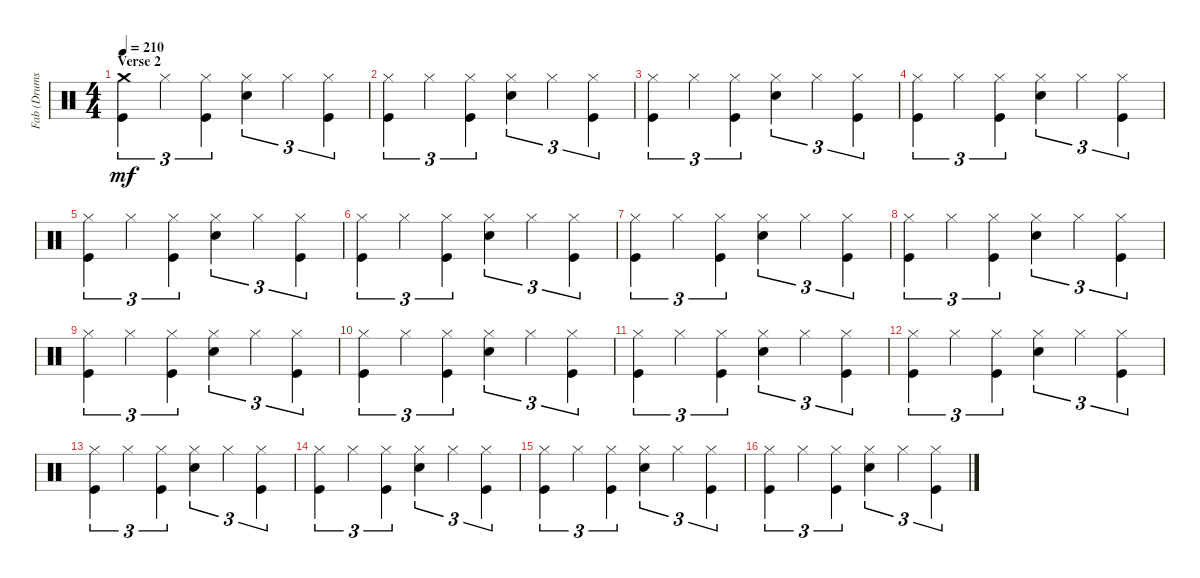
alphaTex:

\track ("Fab (Drums)" "Fab (Drums") {instrument percussion}
\staff {score}
\articulation defaults
\ts (4 4)
\section ("" "Verse 2")
\tempo 210
\clef neutral
\ks c
("Kick (hit)" "Crash medium (hit)").4{tu (3 2) dy mf} "Hi-Hat (closed)".4{tu (3 2)} ("Hi-Hat (closed)" "Kick (hit)").4{tu (3 2)} ("Hi-Hat (closed)" "Snare (hit) 2").4{tu (3 2)} "Hi-Hat (closed)".4{tu (3 2)} ("Hi-Hat (closed)" "Kick (hit)").4{tu (3 2)} |
("Kick (hit)" "Hi-Hat (closed)").4{tu (3 2)} "Hi-Hat (closed)".4{tu (3 2)} ("Hi-Hat (closed)" "Kick (hit)").4{tu (3 2)} ("Hi-Hat (closed)" "Snare (hit) 2").4{tu (3 2)} "Hi-Hat (closed)".4{tu (3 2)} ("Hi-Hat (closed)" "Kick (hit)").4{tu (3 2)} |
("Kick (hit)" "Hi-Hat (closed)").4{tu (3 2)} "Hi-Hat (closed)".4{tu (3 2)} ("Hi-Hat (closed)" "Kick (hit)").4{tu (3 2)} ("Hi-Hat (closed)" "Snare (hit) 2").4{tu (3 2)} "Hi-Hat (closed)".4{tu (3 2)} ("Hi-Hat (closed)" "Kick (hit)").4{tu (3 2)} |
("Kick (hit)" "Hi-Hat (closed)").4{tu (3 2)} "Hi-Hat (closed)".4{tu (3 2)} ("Hi-Hat (closed)" "Kick (hit)").4{tu (3 2)} ("Hi-Hat (closed)" "Snare (hit) 2").4{tu (3 2)} "Hi-Hat (closed)".4{tu (3 2)} ("Hi-Hat (closed)" "Kick (hit)").4{tu (3 2)} |
("Kick (hit)" "Hi-Hat (closed)").4{tu (3 2)} "Hi-Hat (closed)".4{tu (3 2)} ("Hi-Hat (closed)" "Kick (hit)").4{tu (3 2)} ("Hi-Hat (closed)" "Snare (hit) 2").4{tu (3 2)} "Hi-Hat (closed)".4{tu (3 2)} ("Hi-Hat (closed)" "Kick (hit)").4{tu (3 2)} |
("Kick (hit)" "Hi-Hat (closed)").4{tu (3 2)} "Hi-Hat (closed)".4{tu (3 2)} ("Hi-Hat (closed)" "Kick (hit)").4{tu (3 2)} ("Hi-Hat (closed)" "Snare (hit) 2").4{tu (3 2)} "Hi-Hat (closed)".4{tu (3 2)} ("Hi-Hat (closed)" "Kick (hit)").4{tu (3 2)} |
("Kick (hit)" "Hi-Hat (closed)").4{tu (3 2)} "Hi-Hat (closed)".4{tu (3 2)} ("Hi-Hat (closed)" "Kick (hit)").4{tu (3 2)} ("Hi-Hat (closed)" "Snare (hit) 2").4{tu (3 2)} "Hi-Hat (closed)".4{tu (3 2)} ("Hi-Hat (closed)" "Kick (hit)").4{tu (3 2)} |
("Kick (hit)" "Hi-Hat (closed)").4{tu (3 2)} "Hi-Hat (closed)".4{tu (3 2)} ("Hi-Hat (closed)" "Kick (hit)").4{tu (3 2)} ("Hi-Hat (closed)" "Snare (hit) 2").4{tu (3 2)} "Hi-Hat (closed)".4{tu (3 2)} ("Hi-Hat (closed)" "Kick (hit)").4{tu (3 2)} |
("Kick (hit)" "Hi-Hat (closed)").4{tu (3 2)} "Hi-Hat (closed)".4{tu (3 2)} ("Hi-Hat (closed)" "Kick (hit)").4{tu (3 2)} ("Hi-Hat (closed)" "Snare (hit) 2").4{tu (3 2)} "Hi-Hat (closed)".4{tu (3 2)} ("Hi-Hat (closed)" "Kick (hit)").4{tu (3 2)} |
("Kick (hit)" "Hi-Hat (closed)").4{tu (3 2)} "Hi-Hat (closed)".4{tu (3 2)} ("Hi-Hat (closed)" "Kick (hit)").4{tu (3 2)} ("Hi-Hat (closed)" "Snare (hit) 2").4{tu (3 2)} "Hi-Hat (closed)".4{tu (3 2)} ("Hi-Hat (closed)" "Kick (hit)").4{tu (3 2)} |
("Kick (hit)" "Hi-Hat (closed)").4{tu (3 2)} "Hi-Hat (closed)".4{tu (3 2)} ("Hi-Hat (closed)" "Kick (hit)").4{tu (3 2)} ("Hi-Hat (closed)" "Snare (hit) 2").4{tu (3 2)} "Hi-Hat (closed)".4{tu (3 2)} ("Hi-Hat (closed)" "Kick (hit)").4{tu (3 2)} |
("Kick (hit)" "Hi-Hat (closed)").4{tu (3 2)} "Hi-Hat (closed)".4{tu (3 2)} ("Hi-Hat (closed)" "Kick (hit)").4{tu (3 2)} ("Hi-Hat (closed)" "Snare (hit) 2").4{tu (3 2)} "Hi-Hat (closed)".4{tu (3 2)} ("Hi-Hat (closed)" "Kick (hit)").4{tu (3 2)} |
("Kick (hit)" "Hi-Hat (closed)").4{tu (3 2)} "Hi-Hat (closed)".4{tu (3 2)} ("Hi-Hat (closed)" "Kick (hit)").4{tu (3 2)} ("Hi-Hat (closed)" "Snare (hit) 2").4{tu (3 2)} "Hi-Hat (closed)".4{tu (3 2)} ("Hi-Hat (closed)" "Kick (hit)").4{tu (3 2)} |
("Kick (hit)" "Hi-Hat (closed)").4{tu (3 2)} "Hi-Hat (closed)".4{tu (3 2)} ("Hi-Hat (closed)" "Kick (hit)").4{tu (3 2)} ("Hi-Hat (closed)" "Snare (hit) 2").4{tu (3 2)} "Hi-Hat (closed)".4{tu (3 2)} ("Hi-Hat (closed)" "Kick (hit)").4{tu (3 2)} |
("Kick (hit)" "Hi-Hat (closed)").4{tu (3 2)} "Hi-Hat (closed)".4{tu (3 2)} ("Hi-Hat (closed)" "Kick (hit)").4{tu (3 2)} ("Hi-Hat (closed)" "Snare (hit) 2").4{tu (3 2)} "Hi-Hat (closed)".4{tu (3 2)} ("Hi-Hat (closed)" "Kick (hit)").4{tu (3 2)} |
("Kick (hit)" "Hi-Hat (closed)").4{tu (3 2)} "Hi-Hat (closed)".4{tu (3 2)} ("Hi-Hat (closed)" "Kick (hit)").4{tu (3 2)} ("Hi-Hat (closed)" "Snare (hit) 2").4{tu (3 2)} "Hi-Hat (closed)".4{tu (3 2)} ("Hi-Hat (closed)" "Kick (hit)").4{tu (3 2)}
